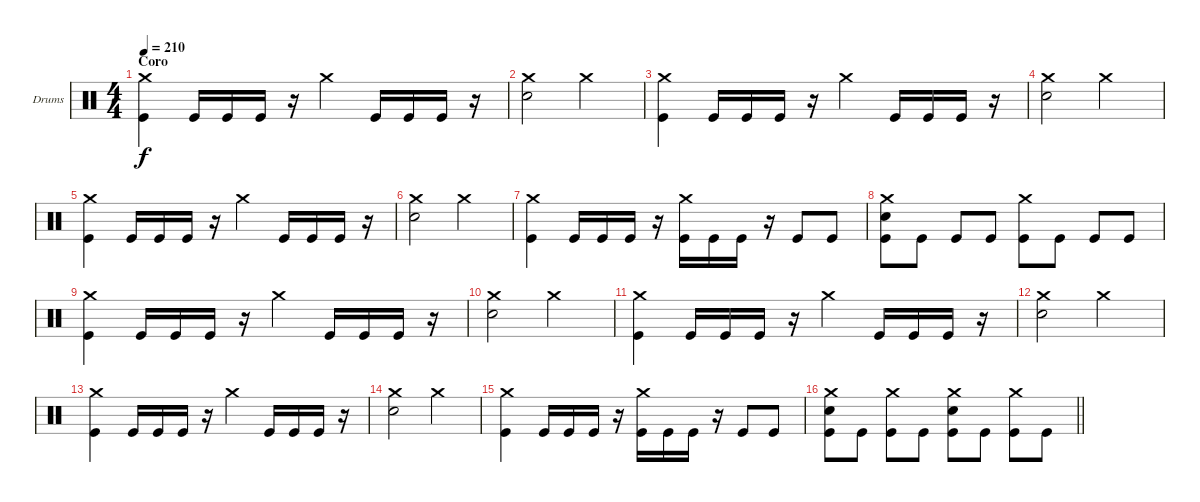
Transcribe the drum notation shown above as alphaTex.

\bracketExtendMode groupsimilarinstruments
\firstSystemTrackNameOrientation horizontal
\otherSystemsTrackNameOrientation horizontal
\track ("Drumkit" "Drums") {instrument percussion}
\staff {score}
\articulation defaults
\ts (4 4)
\section ("" "Coro")
\tempo 210
\clef neutral
\ks c
("Crash medium (hit)" "Kick (hit)").4{dy f} "Kick (hit)".16 "Kick (hit)".16 "Kick (hit)".16 r.16 "Crash medium (hit)".4 "Kick (hit)".16 "Kick (hit)".16 "Kick (hit)".16 r.16 |
("Crash medium (hit)" "Snare (hit) 2").2 "Crash medium (hit)".2 |
("Crash medium (hit)" "Kick (hit)").4 "Kick (hit)".16 "Kick (hit)".16 "Kick (hit)".16 r.16 "Crash medium (hit)".4 "Kick (hit)".16 "Kick (hit)".16 "Kick (hit)".16 r.16 |
("Crash medium (hit)" "Snare (hit) 2").2 "Crash medium (hit)".2 |
("Crash medium (hit)" "Kick (hit)").4 "Kick (hit)".16 "Kick (hit)".16 "Kick (hit)".16 r.16 "Crash medium (hit)".4 "Kick (hit)".16 "Kick (hit)".16 "Kick (hit)".16 r.16 |
("Crash medium (hit)" "Snare (hit) 2").2 "Crash medium (hit)".2 |
("Crash medium (hit)" "Kick (hit)").4 "Kick (hit)".16 "Kick (hit)".16 "Kick (hit)".16 r.16 ("Crash medium (hit)" "Kick (hit)").16 "Kick (hit)".16 "Kick (hit)".16 r.16 "Kick (hit)".8 "Kick (hit)".8 |
("Crash medium (hit)" "Snare (hit) 2" "Kick (hit)").8 "Kick (hit)".8 "Kick (hit)".8 "Kick (hit)".8 ("Crash medium (hit)" "Kick (hit)").8 "Kick (hit)".8 "Kick (hit)".8 "Kick (hit)".8 |
("Crash medium (hit)" "Kick (hit)").4 "Kick (hit)".16 "Kick (hit)".16 "Kick (hit)".16 r.16 "Crash medium (hit)".4 "Kick (hit)".16 "Kick (hit)".16 "Kick (hit)".16 r.16 |
("Crash medium (hit)" "Snare (hit) 2").2 "Crash medium (hit)".2 |
("Crash medium (hit)" "Kick (hit)").4 "Kick (hit)".16 "Kick (hit)".16 "Kick (hit)".16 r.16 "Crash medium (hit)".4 "Kick (hit)".16 "Kick (hit)".16 "Kick (hit)".16 r.16 |
("Crash medium (hit)" "Snare (hit) 2").2 "Crash medium (hit)".2 |
("Crash medium (hit)" "Kick (hit)").4 "Kick (hit)".16 "Kick (hit)".16 "Kick (hit)".16 r.16 "Crash medium (hit)".4 "Kick (hit)".16 "Kick (hit)".16 "Kick (hit)".16 r.16 |
("Crash medium (hit)" "Snare (hit) 2").2 "Crash medium (hit)".2 |
("Crash medium (hit)" "Kick (hit)").4 "Kick (hit)".16 "Kick (hit)".16 "Kick (hit)".16 r.16 ("Crash medium (hit)" "Kick (hit)").16 "Kick (hit)".16 "Kick (hit)".16 r.16 "Kick (hit)".8 "Kick (hit)".8 |
\barLineRight lightlight
("Crash medium (hit)" "Snare (hit) 2" "Kick (hit)").8 "Kick (hit)".8 ("Crash medium (hit)" "Kick (hit)").8 "Kick (hit)".8 ("Crash medium (hit)" "Snare (hit) 2" "Kick (hit)").8 "Kick (hit)".8 ("Crash medium (hit)" "Kick (hit)").8 "Kick (hit)".8
